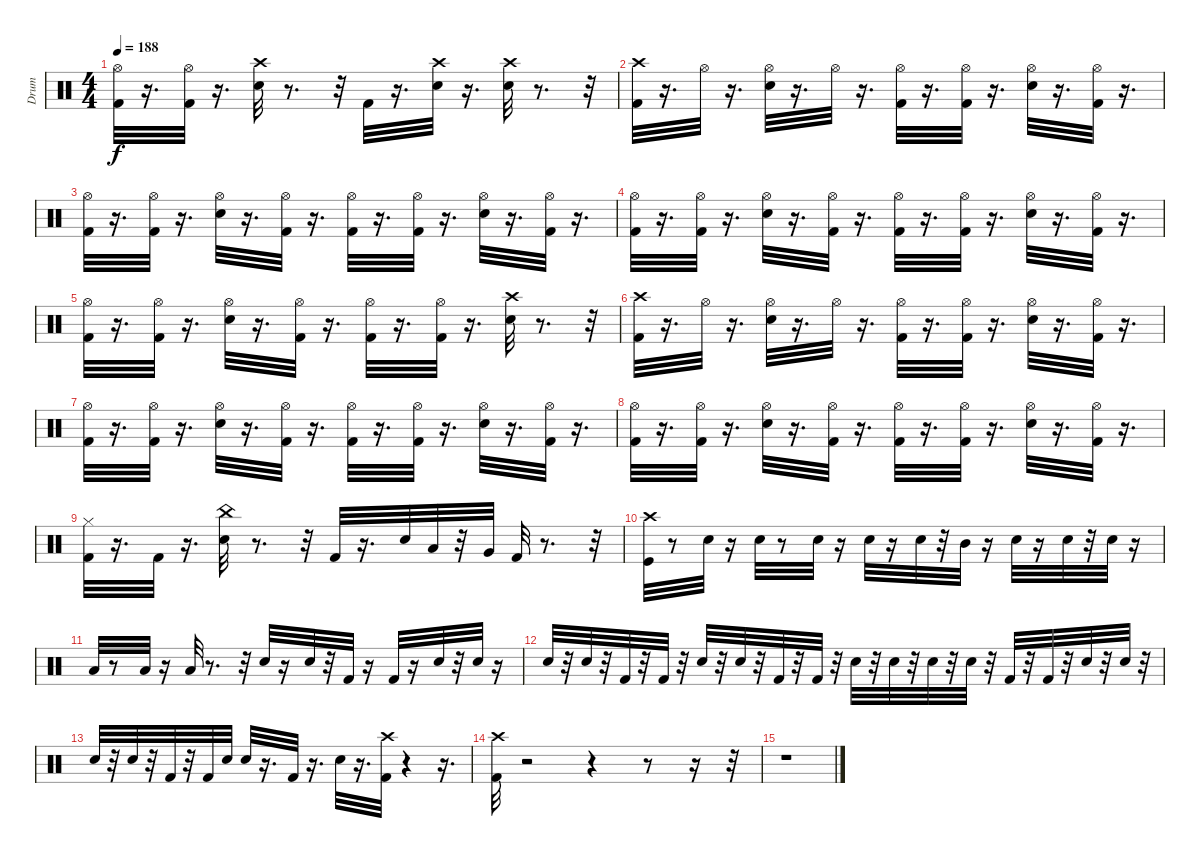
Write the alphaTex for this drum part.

\track ("Drum" "Drum") {instrument percussion}
\staff {score}
\articulation defaults
\ts (4 4)
\tempo 188
\clef neutral
\ks c
("Hi-Hat (open)" "Kick (hit) 2").32{dy f} r.16{d} ("Hi-Hat (open)" "Kick (hit) 2").32 r.16{d} ("Snare (hit) 2" "Crash high (hit)").32 r.8{d} r.32 "Kick (hit) 2".32 r.16{d} ("Crash high (hit)" "Snare (hit) 2").32 r.16{d} ("Crash high (hit)" "Snare (hit) 2").32 r.8{d} r.32 |
("Crash high (hit)" "Kick (hit) 2").32 r.16{d} "Hi-Hat (open)".32 r.16{d} ("Hi-Hat (open)" "Snare (hit) 2").32 r.16{d} "Hi-Hat (open)".32 r.16{d} ("Hi-Hat (open)" "Kick (hit) 2").32 r.16{d} ("Hi-Hat (open)" "Kick (hit) 2").32 r.16{d} ("Hi-Hat (open)" "Snare (hit) 2").32 r.16{d} ("Hi-Hat (open)" "Kick (hit) 2").32 r.16{d} |
("Hi-Hat (open)" "Kick (hit) 2").32 r.16{d} ("Hi-Hat (open)" "Kick (hit) 2").32 r.16{d} ("Hi-Hat (open)" "Snare (hit) 2").32 r.16{d} ("Hi-Hat (open)" "Kick (hit) 2").32 r.16{d} ("Hi-Hat (open)" "Kick (hit) 2").32 r.16{d} ("Hi-Hat (open)" "Kick (hit) 2").32 r.16{d} ("Hi-Hat (open)" "Snare (hit) 2").32 r.16{d} ("Hi-Hat (open)" "Kick (hit) 2").32 r.16{d} |
("Hi-Hat (open)" "Kick (hit) 2").32 r.16{d} ("Hi-Hat (open)" "Kick (hit) 2").32 r.16{d} ("Hi-Hat (open)" "Snare (hit) 2").32 r.16{d} ("Hi-Hat (open)" "Kick (hit) 2").32 r.16{d} ("Hi-Hat (open)" "Kick (hit) 2").32 r.16{d} ("Hi-Hat (open)" "Kick (hit) 2").32 r.16{d} ("Hi-Hat (open)" "Snare (hit) 2").32 r.16{d} ("Hi-Hat (open)" "Kick (hit) 2").32 r.16{d} |
("Hi-Hat (open)" "Kick (hit) 2").32 r.16{d} ("Hi-Hat (open)" "Kick (hit) 2").32 r.16{d} ("Hi-Hat (open)" "Snare (hit) 2").32 r.16{d} ("Hi-Hat (open)" "Kick (hit) 2").32 r.16{d} ("Hi-Hat (open)" "Kick (hit) 2").32 r.16{d} ("Hi-Hat (open)" "Kick (hit) 2").32 r.16{d} ("Crash high (hit)" "Snare (hit) 2").32 r.8{d} r.32 |
("Crash high (hit)" "Kick (hit) 2").32 r.16{d} "Hi-Hat (open)".32 r.16{d} ("Hi-Hat (open)" "Snare (hit) 2").32 r.16{d} "Hi-Hat (open)".32 r.16{d} ("Hi-Hat (open)" "Kick (hit) 2").32 r.16{d} ("Hi-Hat (open)" "Kick (hit) 2").32 r.16{d} ("Hi-Hat (open)" "Snare (hit) 2").32 r.16{d} ("Hi-Hat (open)" "Kick (hit) 2").32 r.16{d} |
("Hi-Hat (open)" "Kick (hit) 2").32 r.16{d} ("Hi-Hat (open)" "Kick (hit) 2").32 r.16{d} ("Hi-Hat (open)" "Snare (hit) 2").32 r.16{d} ("Hi-Hat (open)" "Kick (hit) 2").32 r.16{d} ("Hi-Hat (open)" "Kick (hit) 2").32 r.16{d} ("Hi-Hat (open)" "Kick (hit) 2").32 r.16{d} ("Hi-Hat (open)" "Snare (hit) 2").32 r.16{d} ("Hi-Hat (open)" "Kick (hit) 2").32 r.16{d} |
("Hi-Hat (open)" "Kick (hit) 2").32 r.16{d} ("Hi-Hat (open)" "Kick (hit) 2").32 r.16{d} ("Hi-Hat (open)" "Snare (hit) 2").32 r.16{d} ("Hi-Hat (open)" "Kick (hit) 2").32 r.16{d} ("Hi-Hat (open)" "Kick (hit) 2").32 r.16{d} ("Hi-Hat (open)" "Kick (hit) 2").32 r.16{d} ("Hi-Hat (open)" "Snare (hit) 2").32 r.16{d} ("Hi-Hat (open)" "Kick (hit) 2").32 r.16{d} |
("Hi-Hat (closed)" "Kick (hit) 2").32 r.16{d} "Kick (hit) 2".32 r.16{d} ("Snare (hit) 2" "China (hit)").32 r.8{d} r.32 "Kick (hit) 2".32 r.16{d} "Snare (hit) 2".32 "Low Tom (hit)".32 r.32 "Very Low Tom (hit)".32 "Kick (hit) 2".32 r.8{d} r.32 |
("Crash high (hit)" "Kick (hit)").32 r.8 "Snare (hit) 2".32 r.16 "Snare (hit) 2".32 r.8 "Snare (hit) 2".32 r.16 "Snare (hit) 2".32 r.16 "Snare (hit) 2".32 r.32 "Mid Tom (hit)".32 r.16 "Snare (hit) 2".32 r.16 "Snare (hit) 2".32 r.32 "Snare (hit) 2".32 r.16 |
"Low Floor Tom (hit)".32 r.8 "Low Tom (hit)".32 r.16 "Low Tom (hit)".32 r.8{d} r.32 "Snare (hit) 2".32 r.16 "Snare (hit) 2".32 r.32 "Kick (hit) 2".32 r.16 "Kick (hit) 2".32 r.16 "Snare (hit) 2".32 r.32 "Snare (hit) 2".32 r.16 |
"Snare (hit) 2".32 r.32 "Snare (hit) 2".32 r.32 "Kick (hit) 2".32 r.32 "Kick (hit) 2".32 r.32 "Snare (hit) 2".32 r.32 "Snare (hit) 2".32 r.32 "Kick (hit) 2".32 r.32 "Kick (hit) 2".32 r.32 "Snare (hit) 2".32 r.32 "Snare (hit) 2".32 r.32 "Snare (hit) 2".32 r.32 "Snare (hit) 2".32 r.32 "Kick (hit) 2".32 r.32 "Kick (hit) 2".32 r.32 "Snare (hit) 2".32 r.32 "Snare (hit) 2".32 r.32 |
"Snare (hit) 2".32 r.32 "Snare (hit) 2".32 r.32 "Kick (hit) 2".32 r.32 "Kick (hit) 2".32 "Snare (hit) 2".32 "Snare (hit) 2".32 r.16{d} "Kick (hit) 2".32 r.16{d} "Snare (hit) 2".32 r.16{d} ("Crash high (hit)" "Kick (hit) 2").32 r.4 r.16{d} |
("Crash high (hit)" "Kick (hit) 2").32 r.2 r.4 r.8 r.16 r.32 |
r.1
